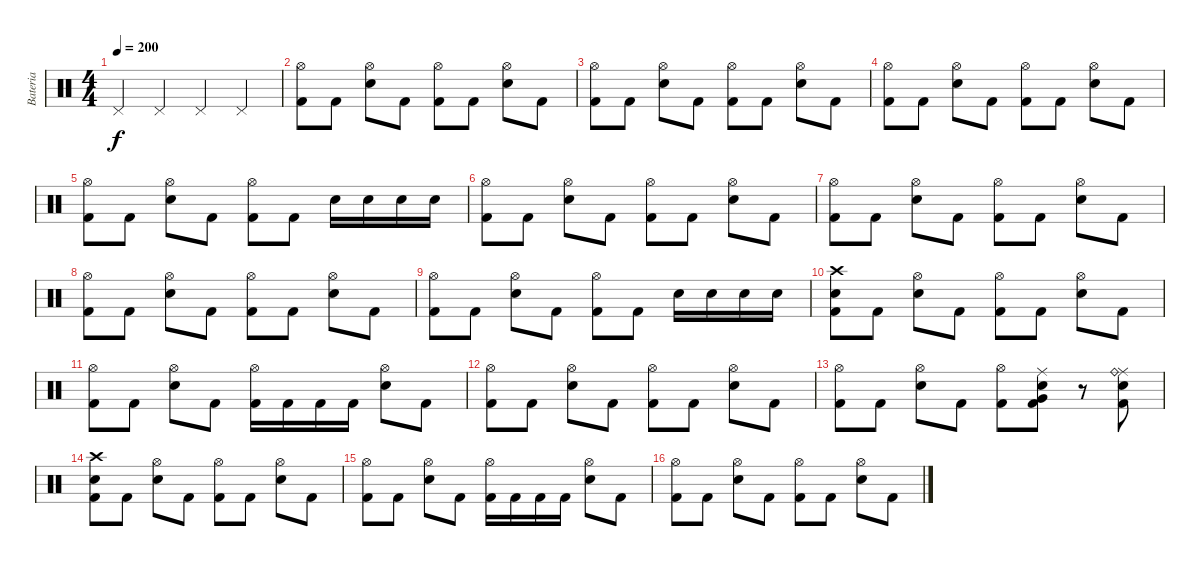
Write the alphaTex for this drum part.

\track ("Bateria" "Bateria") {instrument percussion}
\staff {score}
\articulation defaults
\ts (4 4)
\tempo 200
\clef neutral
\ks c "Pedal Hi-Hat (hit)".4{dy f} "Pedal Hi-Hat (hit)".4 "Pedal Hi-Hat (hit)".4 "Pedal Hi-Hat (hit)".4
|
("Kick (hit) 2" "Hi-Hat (open)").8 "Kick (hit) 2".8 ("Electric Snare (hit)" "Hi-Hat (open)").8 "Kick (hit) 2".8 ("Kick (hit) 2" "Hi-Hat (open)").8 "Kick (hit) 2".8 ("Electric Snare (hit)" "Hi-Hat (open)").8 "Kick (hit) 2".8 |
("Kick (hit) 2" "Hi-Hat (open)").8 "Kick (hit) 2".8 ("Electric Snare (hit)" "Hi-Hat (open)").8 "Kick (hit) 2".8 ("Kick (hit) 2" "Hi-Hat (open)").8 "Kick (hit) 2".8 ("Electric Snare (hit)" "Hi-Hat (open)").8 "Kick (hit) 2".8 |
("Kick (hit) 2" "Hi-Hat (open)").8 "Kick (hit) 2".8 ("Electric Snare (hit)" "Hi-Hat (open)").8 "Kick (hit) 2".8 ("Kick (hit) 2" "Hi-Hat (open)").8 "Kick (hit) 2".8 ("Electric Snare (hit)" "Hi-Hat (open)").8 "Kick (hit) 2".8 |
("Kick (hit) 2" "Hi-Hat (open)").8 "Kick (hit) 2".8 ("Electric Snare (hit)" "Hi-Hat (open)").8 "Kick (hit) 2".8 ("Kick (hit) 2" "Hi-Hat (open)").8 "Kick (hit) 2".8 "Electric Snare (hit)".16 "Electric Snare (hit)".16 "Electric Snare (hit)".16 "Electric Snare (hit)".16 |
("Kick (hit) 2" "Hi-Hat (open)").8 "Kick (hit) 2".8 ("Electric Snare (hit)" "Hi-Hat (open)").8 "Kick (hit) 2".8 ("Kick (hit) 2" "Hi-Hat (open)").8 "Kick (hit) 2".8 ("Electric Snare (hit)" "Hi-Hat (open)").8 "Kick (hit) 2".8 |
("Kick (hit) 2" "Hi-Hat (open)").8 "Kick (hit) 2".8 ("Electric Snare (hit)" "Hi-Hat (open)").8 "Kick (hit) 2".8 ("Kick (hit) 2" "Hi-Hat (open)").8 "Kick (hit) 2".8 ("Electric Snare (hit)" "Hi-Hat (open)").8 "Kick (hit) 2".8 |
("Kick (hit) 2" "Hi-Hat (open)").8 "Kick (hit) 2".8 ("Electric Snare (hit)" "Hi-Hat (open)").8 "Kick (hit) 2".8 ("Kick (hit) 2" "Hi-Hat (open)").8 "Kick (hit) 2".8 ("Electric Snare (hit)" "Hi-Hat (open)").8 "Kick (hit) 2".8 |
("Kick (hit) 2" "Hi-Hat (open)").8 "Kick (hit) 2".8 ("Electric Snare (hit)" "Hi-Hat (open)").8 "Kick (hit) 2".8 ("Kick (hit) 2" "Hi-Hat (open)").8 "Kick (hit) 2".8 "Electric Snare (hit)".16 "Electric Snare (hit)".16 "Electric Snare (hit)".16 "Electric Snare (hit)".16 |
("Kick (hit) 2" "Electric Snare (hit)" "Crash high (hit)").8 "Kick (hit) 2".8 ("Electric Snare (hit)" "Hi-Hat (open)").8 "Kick (hit) 2".8 ("Kick (hit) 2" "Hi-Hat (open)").8 "Kick (hit) 2".8 ("Electric Snare (hit)" "Hi-Hat (open)").8 "Kick (hit) 2".8 |
("Kick (hit) 2" "Hi-Hat (open)").8 "Kick (hit) 2".8 ("Electric Snare (hit)" "Hi-Hat (open)").8 "Kick (hit) 2".8 ("Kick (hit) 2" "Hi-Hat (open)").16 "Kick (hit) 2".16 "Kick (hit) 2".16 "Kick (hit) 2".16 ("Electric Snare (hit)" "Hi-Hat (open)").8 "Kick (hit) 2".8 |
("Kick (hit) 2" "Hi-Hat (open)").8 "Kick (hit) 2".8 ("Electric Snare (hit)" "Hi-Hat (open)").8 "Kick (hit) 2".8 ("Kick (hit) 2" "Hi-Hat (open)").8 "Kick (hit) 2".8 ("Electric Snare (hit)" "Hi-Hat (open)").8 "Kick (hit) 2".8 |
("Kick (hit) 2" "Hi-Hat (open)").8 "Kick (hit) 2".8 ("Electric Snare (hit)" "Hi-Hat (open)").8 "Kick (hit) 2".8 ("Kick (hit) 2" "Hi-Hat (open)").8 ("Kick (hit) 2" "Electric Snare (hit)" "Ride (middle)" "Very Low Tom (hit)").8 r.8 ("Kick (hit) 2" "Electric Snare (hit)" "Ride (middle)" "Ride (bell)").8 |
("Kick (hit) 2" "Electric Snare (hit)" "Crash high (hit)").8 "Kick (hit) 2".8 ("Electric Snare (hit)" "Hi-Hat (open)").8 "Kick (hit) 2".8 ("Kick (hit) 2" "Hi-Hat (open)").8 "Kick (hit) 2".8 ("Electric Snare (hit)" "Hi-Hat (open)").8 "Kick (hit) 2".8 |
("Kick (hit) 2" "Hi-Hat (open)").8 "Kick (hit) 2".8 ("Electric Snare (hit)" "Hi-Hat (open)").8 "Kick (hit) 2".8 ("Kick (hit) 2" "Hi-Hat (open)").16 "Kick (hit) 2".16 "Kick (hit) 2".16 "Kick (hit) 2".16 ("Electric Snare (hit)" "Hi-Hat (open)").8 "Kick (hit) 2".8 |
("Kick (hit) 2" "Hi-Hat (open)").8 "Kick (hit) 2".8 ("Electric Snare (hit)" "Hi-Hat (open)").8 "Kick (hit) 2".8 ("Kick (hit) 2" "Hi-Hat (open)").8 "Kick (hit) 2".8 ("Electric Snare (hit)" "Hi-Hat (open)").8 "Kick (hit) 2".8
